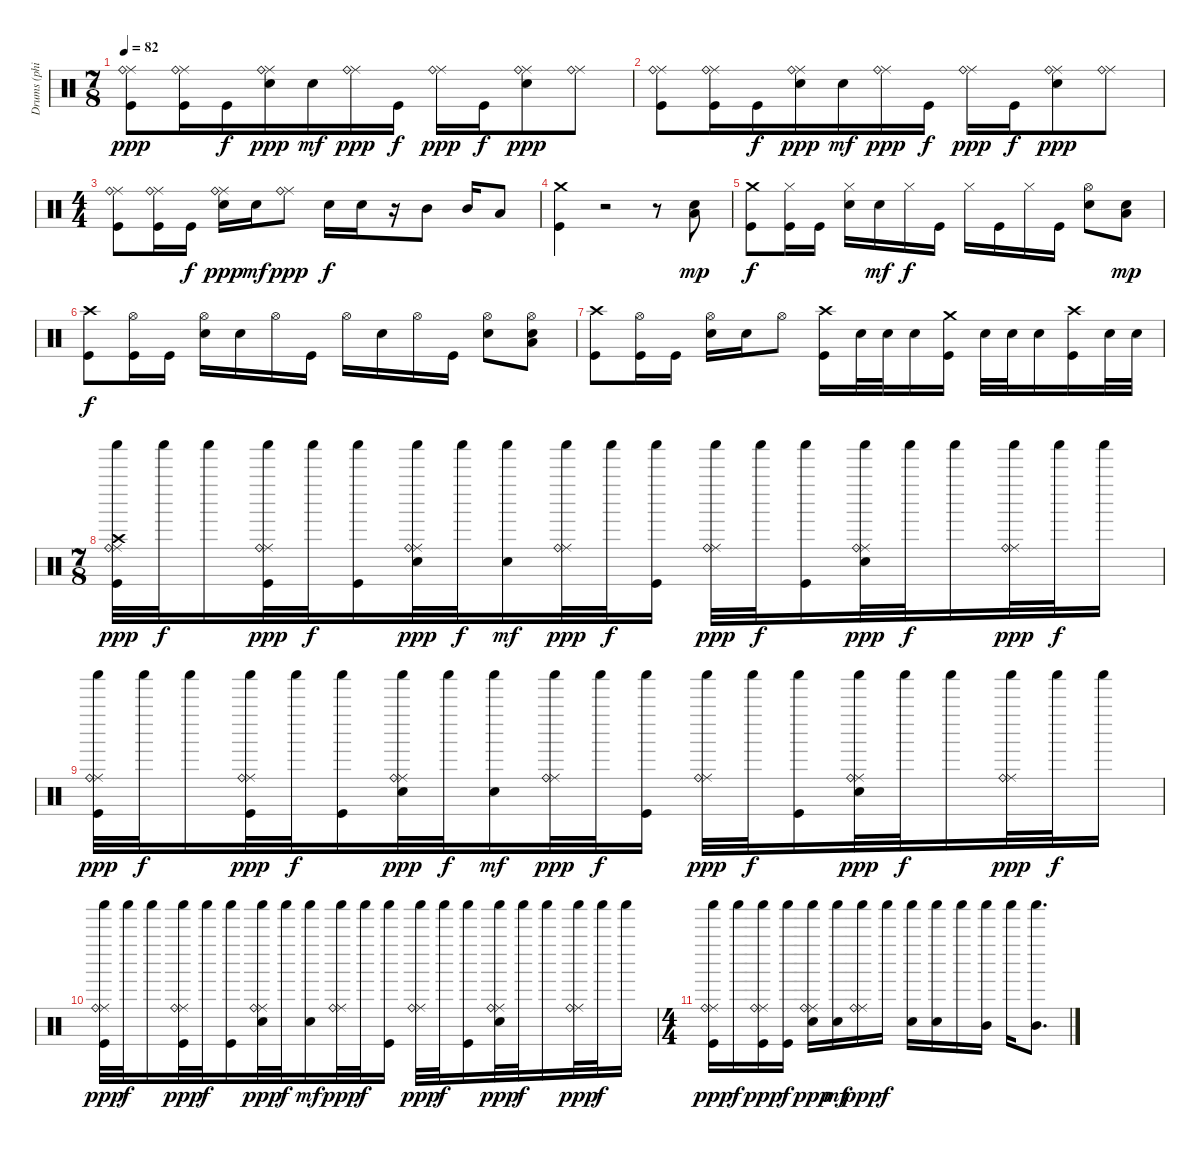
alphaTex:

\track ("Drums (phil)" "Drums (phi") {instrument percussion}
\staff {score}
\articulation defaults
\ts (7 8)
\tempo 82
\clef neutral
\ks c
("Ride (middle)" "Ride (bell)" "Kick (hit)").8{dy ppp} ("Ride (middle)" "Ride (bell)" "Kick (hit)").16 "Kick (hit)".16{dy f} ("Ride (middle)" "Ride (bell)" "Snare (hit) 2").16{dy ppp} "Snare (hit) 2".16{dy mf} ("Ride (middle)" "Ride (bell)").16{dy ppp} "Kick (hit)".16{dy f} ("Ride (middle)" "Ride (bell)").16{dy ppp} "Kick (hit)".16{dy f} ("Ride (middle)" "Ride (bell)" "Snare (hit) 2").8{dy ppp} ("Ride (middle)" "Ride (bell)").8 |
("Ride (middle)" "Ride (bell)" "Kick (hit)").8 ("Ride (middle)" "Ride (bell)" "Kick (hit)").16 "Kick (hit)".16{dy f} ("Ride (middle)" "Ride (bell)" "Snare (hit) 2").16{dy ppp} "Snare (hit) 2".16{dy mf} ("Ride (middle)" "Ride (bell)").16{dy ppp} "Kick (hit)".16{dy f} ("Ride (middle)" "Ride (bell)").16{dy ppp} "Kick (hit)".16{dy f} ("Ride (middle)" "Ride (bell)" "Snare (hit) 2").8{dy ppp} ("Ride (middle)" "Ride (bell)").8 |
\ts (4 4)
("Ride (middle)" "Ride (bell)" "Kick (hit)").8 ("Ride (middle)" "Ride (bell)" "Kick (hit)").16 "Kick (hit)".16{dy f} ("Ride (middle)" "Ride (bell)" "Snare (hit) 2").16{dy ppp} "Snare (hit) 2".16{dy mf} ("Ride (middle)" "Ride (bell)").8{dy ppp} "Snare (hit) 2".16{dy f} "Snare (hit) 2".16 r.16 "Mid Tom (hit)".8 "Mid Tom (hit)".16 "Low Tom (hit)".8 |
("Crash medium (hit)" "Kick (hit)").4 r.2 r.8 ("Snare (hit) 2" "Low Tom (hit)").8{dy mp} |
("Crash medium (hit)" "Kick (hit)").8{dy f} ("Hi-Hat (closed)" "Kick (hit)").16 "Kick (hit)".16 ("Hi-Hat (closed)" "Snare (hit) 2").16 "Snare (hit) 2".16{dy mf} "Hi-Hat (closed)".16{dy f} "Kick (hit)".16 "Hi-Hat (closed)".16 "Kick (hit)".16 "Hi-Hat (closed)".16 "Kick (hit)".16 ("Hi-Hat (open)" "Snare (hit) 2").8 ("Snare (hit) 2" "Low Floor Tom (hit)").8{dy mp} |
("Crash high (hit)" "Kick (hit)").8{dy f} ("Hi-Hat (open)" "Kick (hit)").16 "Kick (hit)".16 ("Hi-Hat (open)" "Snare (hit) 2").16 "Snare (hit) 2".16 "Hi-Hat (open)".16 "Kick (hit)".16 "Hi-Hat (open)".16 "Snare (hit) 2".16 "Hi-Hat (open)".16 "Kick (hit)".16 ("Hi-Hat (open)" "Snare (hit) 2").8 ("Hi-Hat (open)" "Snare (hit) 2" "Low Floor Tom (hit)").8 |
("Crash high (hit)" "Kick (hit)").8 ("Hi-Hat (open)" "Kick (hit)").16 "Kick (hit)".16 ("Hi-Hat (open)" "Snare (hit) 2").16 "Snare (hit) 2".16 "Hi-Hat (open)".8 ("Crash high (hit)" "Kick (hit)").16 "Snare (hit) 2".32 "Snare (hit) 2".32 "Snare (hit) 2".16 ("Crash medium (hit)" "Kick (hit)").16 "Snare (hit) 2".32 "Snare (hit) 2".32 "Snare (hit) 2".16 ("Crash high (hit)" "Kick (hit)").16 "Snare (hit) 2".32 "Snare (hit) 2".32 |
\ts (7 8)
("Ride (middle)" "Ride (bell)" "Crash high (hit)" "Shaker (hit)" "Kick (hit)").32{dy ppp} "Shaker (hit)".32{dy f} "Shaker (hit)".16 ("Ride (middle)" "Ride (bell)" "Shaker (hit)" "Kick (hit)").32{dy ppp} "Shaker (hit)".32{dy f} ("Shaker (hit)" "Kick (hit)").16 ("Ride (middle)" "Ride (bell)" "Snare (hit) 2" "Shaker (hit)").32{dy ppp} "Shaker (hit)".32{dy f} ("Snare (hit) 2" "Shaker (hit)").16{dy mf} ("Ride (middle)" "Ride (bell)" "Shaker (hit)").32{dy ppp} "Shaker (hit)".32{dy f} ("Shaker (hit)" "Kick (hit)").16 ("Ride (middle)" "Ride (bell)" "Shaker (hit)").32{dy ppp} "Shaker (hit)".32{dy f} ("Shaker (hit)" "Kick (hit)").16 ("Ride (middle)" "Ride (bell)" "Snare (hit) 2" "Shaker (hit)").32{dy ppp} "Shaker (hit)".32{dy f} "Shaker (hit)".16 ("Ride (middle)" "Ride (bell)" "Shaker (hit)").32{dy ppp} "Shaker (hit)".32{dy f} "Shaker (hit)".16 |
("Ride (middle)" "Ride (bell)" "Shaker (hit)" "Kick (hit)").32{dy ppp} "Shaker (hit)".32{dy f} "Shaker (hit)".16 ("Ride (middle)" "Ride (bell)" "Shaker (hit)" "Kick (hit)").32{dy ppp} "Shaker (hit)".32{dy f} ("Shaker (hit)" "Kick (hit)").16 ("Ride (middle)" "Ride (bell)" "Snare (hit) 2" "Shaker (hit)").32{dy ppp} "Shaker (hit)".32{dy f} ("Snare (hit) 2" "Shaker (hit)").16{dy mf} ("Ride (middle)" "Ride (bell)" "Shaker (hit)").32{dy ppp} "Shaker (hit)".32{dy f} ("Shaker (hit)" "Kick (hit)").16 ("Ride (middle)" "Ride (bell)" "Shaker (hit)").32{dy ppp} "Shaker (hit)".32{dy f} ("Shaker (hit)" "Kick (hit)").16 ("Ride (middle)" "Ride (bell)" "Snare (hit) 2" "Shaker (hit)").32{dy ppp} "Shaker (hit)".32{dy f} "Shaker (hit)".16 ("Ride (middle)" "Ride (bell)" "Shaker (hit)").32{dy ppp} "Shaker (hit)".32{dy f} "Shaker (hit)".16 |
("Ride (middle)" "Ride (bell)" "Shaker (hit)" "Kick (hit)").32{dy ppp} "Shaker (hit)".32{dy f} "Shaker (hit)".16 ("Ride (middle)" "Ride (bell)" "Shaker (hit)" "Kick (hit)").32{dy ppp} "Shaker (hit)".32{dy f} ("Shaker (hit)" "Kick (hit)").16 ("Ride (middle)" "Ride (bell)" "Snare (hit) 2" "Shaker (hit)").32{dy ppp} "Shaker (hit)".32{dy f} ("Snare (hit) 2" "Shaker (hit)").16{dy mf} ("Ride (middle)" "Ride (bell)" "Shaker (hit)").32{dy ppp} "Shaker (hit)".32{dy f} ("Shaker (hit)" "Kick (hit)").16 ("Ride (middle)" "Ride (bell)" "Shaker (hit)").32{dy ppp} "Shaker (hit)".32{dy f} ("Shaker (hit)" "Kick (hit)").16 ("Ride (middle)" "Ride (bell)" "Snare (hit) 2" "Shaker (hit)").32{dy ppp} "Shaker (hit)".32{dy f} "Shaker (hit)".16 ("Ride (middle)" "Ride (bell)" "Shaker (hit)").32{dy ppp} "Shaker (hit)".32{dy f} "Shaker (hit)".16 |
\ts (4 4)
("Ride (middle)" "Ride (bell)" "Shaker (hit)" "Kick (hit)").16{dy ppp} "Shaker (hit)".16{dy f} ("Ride (middle)" "Ride (bell)" "Shaker (hit)" "Kick (hit)").16{dy ppp} ("Shaker (hit)" "Kick (hit)").16{dy f} ("Ride (middle)" "Ride (bell)" "Shaker (hit)" "Snare (hit) 2").16{dy ppp} ("Shaker (hit)" "Snare (hit) 2").16{dy mf} ("Ride (middle)" "Ride (bell)" "Shaker (hit)").16{dy ppp} "Shaker (hit)".16{dy f} ("Shaker (hit)" "Snare (hit) 2").16 ("Shaker (hit)" "Snare (hit) 2").16 "Shaker (hit)".16 ("Mid Tom (hit)" "Shaker (hit)").16 "Shaker (hit)".16 ("Mid Tom (hit)" "Shaker (hit)").8{d}
